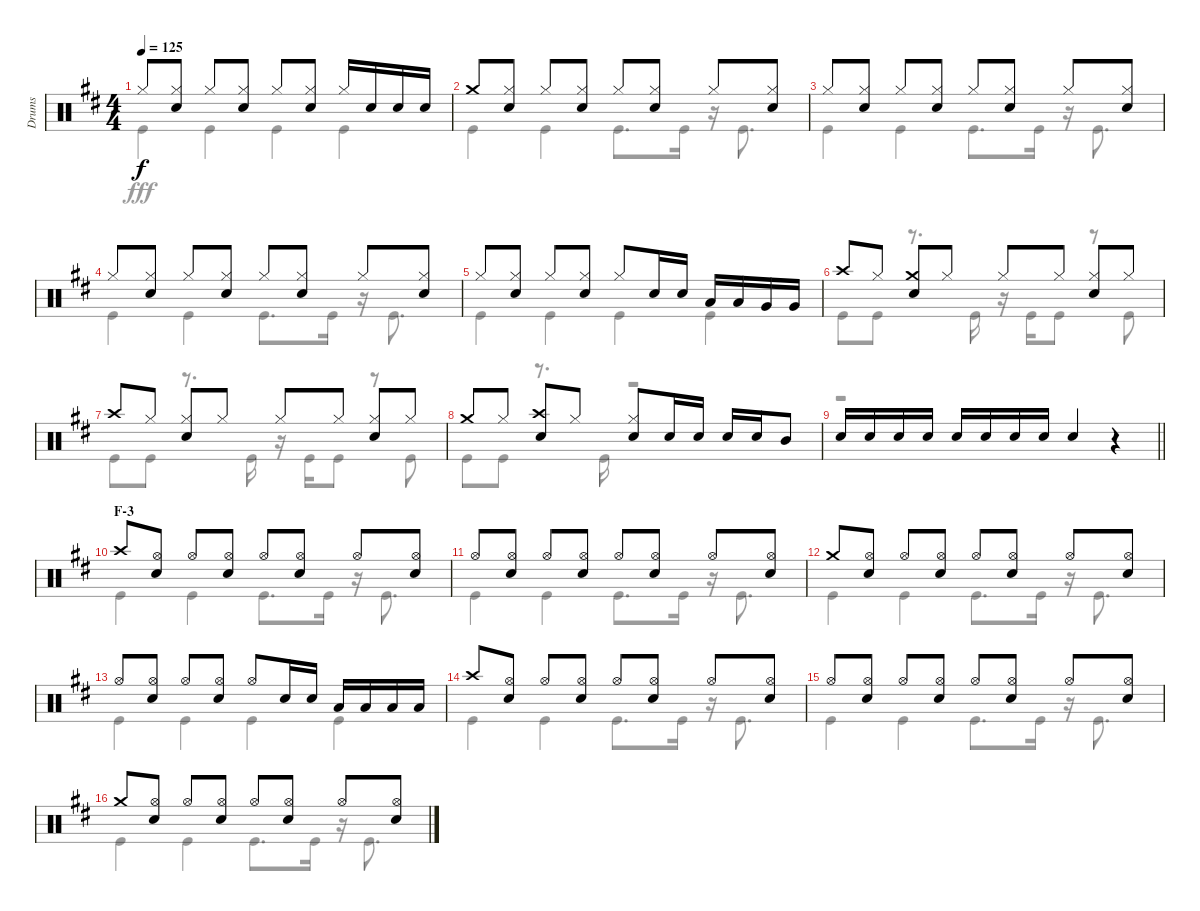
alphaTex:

\track ("Drums" "Drums") {instrument percussion}
\staff {score}
\articulation defaults
\voice
\ts (4 4)
\tempo 125
\clef neutral
\ks d "Hi-Hat (closed)".8{dy f}
("Hi-Hat (closed)" "Snare (hit) 2").8 "Hi-Hat (closed)".8 ("Hi-Hat (closed)" "Snare (hit) 2").8 "Hi-Hat (closed)".8 ("Hi-Hat (closed)" "Snare (hit) 2").8 "Hi-Hat (closed)".16 "Snare (hit) 2".16 "Snare (hit) 2".16 "Snare (hit) 2".16 |
"Crash medium (hit)".8 ("Hi-Hat (closed)" "Snare (hit) 2").8 "Hi-Hat (closed)".8 ("Hi-Hat (closed)" "Snare (hit) 2").8 "Hi-Hat (closed)".8 ("Hi-Hat (closed)" "Snare (hit) 2").8 "Hi-Hat (closed)".8 ("Hi-Hat (closed)" "Snare (hit) 2").8 |
"Hi-Hat (closed)".8 ("Hi-Hat (closed)" "Snare (hit) 2").8 "Hi-Hat (closed)".8 ("Hi-Hat (closed)" "Snare (hit) 2").8 "Hi-Hat (closed)".8 ("Hi-Hat (closed)" "Snare (hit) 2").8 "Hi-Hat (closed)".8 ("Hi-Hat (closed)" "Snare (hit) 2").8 |
"Hi-Hat (closed)".8 ("Hi-Hat (closed)" "Snare (hit) 2").8 "Hi-Hat (closed)".8 ("Hi-Hat (closed)" "Snare (hit) 2").8 "Hi-Hat (closed)".8 ("Hi-Hat (closed)" "Snare (hit) 2").8 "Hi-Hat (closed)".8 ("Hi-Hat (closed)" "Snare (hit) 2").8 |
"Hi-Hat (closed)".8 ("Hi-Hat (closed)" "Snare (hit) 2").8 "Hi-Hat (closed)".8 ("Hi-Hat (closed)" "Snare (hit) 2").8 "Hi-Hat (closed)".8 "Snare (hit) 2".16 "Snare (hit) 2".16 "Low Tom (hit)".16 "Low Tom (hit)".16 "Very Low Tom (hit)".16 "Very Low Tom (hit)".16 |
"Crash high (hit)".8 "Hi-Hat (closed)".8 ("Crash medium (hit)" "Snare (hit) 2").8 "Hi-Hat (closed)".8 "Hi-Hat (closed)".8 "Hi-Hat (closed)".8 ("Hi-Hat (closed)" "Snare (hit) 2").8 "Hi-Hat (closed)".8 |
"Crash high (hit)".8 "Hi-Hat (closed)".8 ("Hi-Hat (closed)" "Snare (hit) 2").8 "Hi-Hat (closed)".8 "Hi-Hat (closed)".8 "Hi-Hat (closed)".8 ("Hi-Hat (closed)" "Snare (hit) 2").8 "Hi-Hat (closed)".8 |
"Crash medium (hit)".8 "Hi-Hat (closed)".8 ("Crash high (hit)" "Snare (hit) 2").8 "Hi-Hat (closed)".8 ("Hi-Hat (closed)" "Snare (hit) 2").8 "Snare (hit) 2".16 "Snare (hit) 2".16 "Snare (hit) 2".16 "Snare (hit) 2".16 "Mid Tom (hit)".8 |
\barLineRight lightlight "Snare (hit) 2".16 "Snare (hit) 2".16 "Snare (hit) 2".16 "Snare (hit) 2".16 "Snare (hit) 2".16 "Snare (hit) 2".16 "Snare (hit) 2".16 "Snare (hit) 2".16 "Snare (hit) 2".4
r.4 |
\section ("" "F-3")
"Crash high (hit)".8 ("Hi-Hat (open)" "Snare (hit) 2").8 "Hi-Hat (open)".8 ("Hi-Hat (open)" "Snare (hit) 2").8 "Hi-Hat (open)".8 ("Hi-Hat (open)" "Snare (hit) 2").8 "Hi-Hat (open)".8 ("Hi-Hat (open)" "Snare (hit) 2").8 |
"Hi-Hat (open)".8 ("Hi-Hat (open)" "Snare (hit) 2").8 "Hi-Hat (open)".8 ("Hi-Hat (open)" "Snare (hit) 2").8 "Hi-Hat (open)".8 ("Hi-Hat (open)" "Snare (hit) 2").8 "Hi-Hat (open)".8 ("Hi-Hat (open)" "Snare (hit) 2").8 |
"Crash medium (hit)".8 ("Hi-Hat (open)" "Snare (hit) 2").8 "Hi-Hat (open)".8 ("Hi-Hat (open)" "Snare (hit) 2").8 "Hi-Hat (open)".8 ("Hi-Hat (open)" "Snare (hit) 2").8 "Hi-Hat (open)".8 ("Hi-Hat (open)" "Snare (hit) 2").8 |
"Hi-Hat (open)".8 ("Hi-Hat (open)" "Snare (hit) 2").8 "Hi-Hat (open)".8 ("Hi-Hat (open)" "Snare (hit) 2").8 "Hi-Hat (open)".8 "Snare (hit) 2".16 "Snare (hit) 2".16 "Low Tom (hit)".16 "Low Tom (hit)".16 "Low Tom (hit)".16 "Low Tom (hit)".16 |
"Crash high (hit)".8 ("Hi-Hat (open)" "Snare (hit) 2").8 "Hi-Hat (open)".8 ("Hi-Hat (open)" "Snare (hit) 2").8 "Hi-Hat (open)".8 ("Hi-Hat (open)" "Snare (hit) 2").8 "Hi-Hat (open)".8 ("Hi-Hat (open)" "Snare (hit) 2").8 |
"Hi-Hat (open)".8 ("Hi-Hat (open)" "Snare (hit) 2").8 "Hi-Hat (open)".8 ("Hi-Hat (open)" "Snare (hit) 2").8 "Hi-Hat (open)".8 ("Hi-Hat (open)" "Snare (hit) 2").8 "Hi-Hat (open)".8 ("Hi-Hat (open)" "Snare (hit) 2").8 |
"Crash medium (hit)".8 ("Hi-Hat (open)" "Snare (hit) 2").8 "Hi-Hat (open)".8 ("Hi-Hat (open)" "Snare (hit) 2").8 "Hi-Hat (open)".8 ("Hi-Hat (open)" "Snare (hit) 2").8 "Hi-Hat (open)".8 ("Hi-Hat (open)" "Snare (hit) 2").8
\voice
\clef neutral
\ottava regular
\simile none
\ks d "Kick (hit)".4{dy fff} "Kick (hit)".4 "Kick (hit)".4 "Kick (hit)".4
|
"Kick (hit)".4 "Kick (hit)".4 "Kick (hit)".8{d} "Kick (hit)".16 r.16 "Kick (hit)".8{d} |
"Kick (hit)".4 "Kick (hit)".4 "Kick (hit)".8{d} "Kick (hit)".16 r.16 "Kick (hit)".8{d} |
"Kick (hit)".4 "Kick (hit)".4 "Kick (hit)".8{d} "Kick (hit)".16 r.16 "Kick (hit)".8{d} |
"Kick (hit)".4 "Kick (hit)".4 "Kick (hit)".4 "Kick (hit)".4 |
"Kick (hit)".8 "Kick (hit)".8 r.8{d} "Kick (hit)".16 r.16 "Kick (hit)".16 "Kick (hit)".8 r.8 "Kick (hit)".8 |
"Kick (hit)".8 "Kick (hit)".8 r.8{d} "Kick (hit)".16 r.16 "Kick (hit)".16 "Kick (hit)".8 r.8 "Kick (hit)".8 |
"Kick (hit)".8 "Kick (hit)".8 r.8{d} "Kick (hit)".16 r.2 |
\barLineRight lightlight
r.1 |
"Kick (hit)".4 "Kick (hit)".4 "Kick (hit)".8{d} "Kick (hit)".16 r.16 "Kick (hit)".8{d} |
"Kick (hit)".4 "Kick (hit)".4 "Kick (hit)".8{d} "Kick (hit)".16 r.16 "Kick (hit)".8{d} |
"Kick (hit)".4 "Kick (hit)".4 "Kick (hit)".8{d} "Kick (hit)".16 r.16 "Kick (hit)".8{d} |
"Kick (hit)".4 "Kick (hit)".4 "Kick (hit)".4 "Kick (hit)".4 |
"Kick (hit)".4 "Kick (hit)".4 "Kick (hit)".8{d} "Kick (hit)".16 r.16 "Kick (hit)".8{d} |
"Kick (hit)".4 "Kick (hit)".4 "Kick (hit)".8{d} "Kick (hit)".16 r.16 "Kick (hit)".8{d} |
"Kick (hit)".4 "Kick (hit)".4 "Kick (hit)".8{d} "Kick (hit)".16 r.16 "Kick (hit)".8{d}
